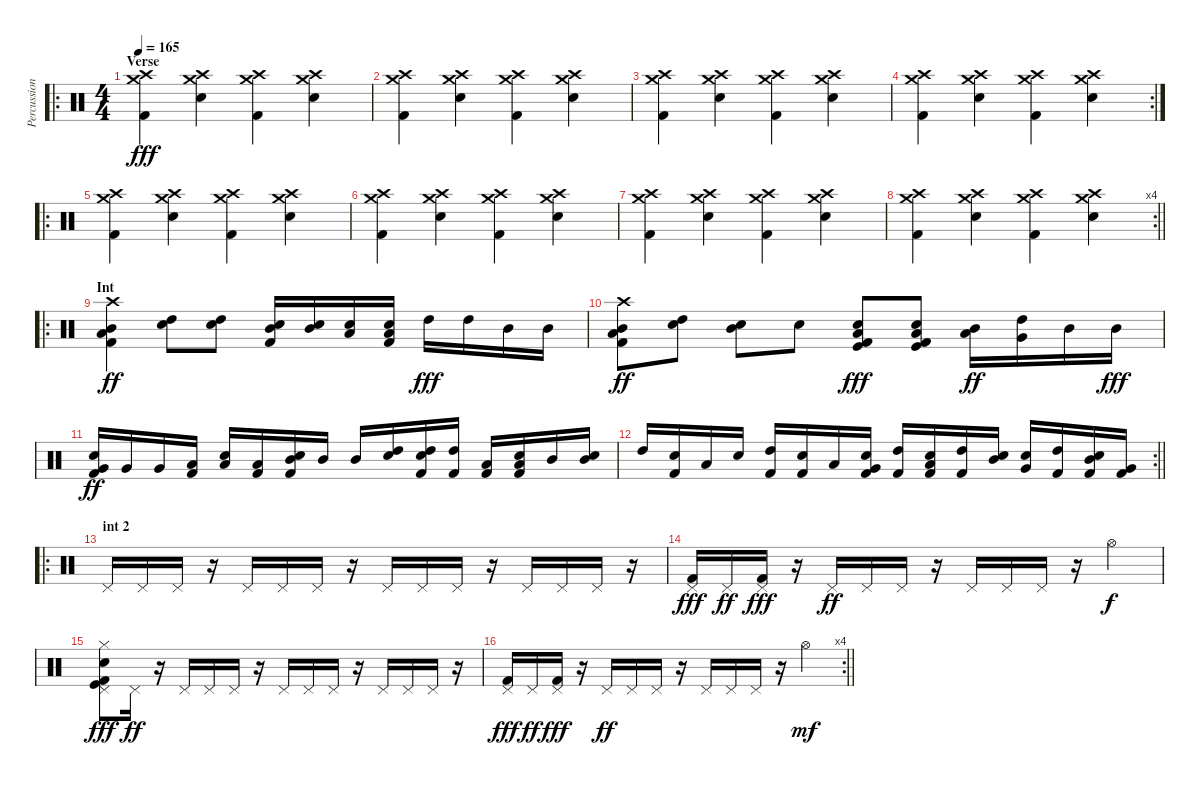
\track ("Percussion" "Percussion") {instrument percussion}
\staff {score}
\articulation defaults
\ro
\ts (4 4)
\section ("" "Verse")
\tempo 165
\clef neutral
\ks c
("Crash high (hit)" "Crash medium (hit)" "Kick (hit) 2").4{dy fff} ("Crash high (hit)" "Crash medium (hit)" "Snare (hit) 2").4 ("Crash high (hit)" "Crash medium (hit)" "Kick (hit) 2").4 ("Crash high (hit)" "Crash medium (hit)" "Snare (hit) 2").4 |
("Crash high (hit)" "Crash medium (hit)" "Kick (hit) 2").4 ("Crash high (hit)" "Crash medium (hit)" "Snare (hit) 2").4 ("Crash high (hit)" "Crash medium (hit)" "Kick (hit) 2").4 ("Crash high (hit)" "Crash medium (hit)" "Snare (hit) 2").4 |
("Crash high (hit)" "Crash medium (hit)" "Kick (hit) 2").4 ("Crash high (hit)" "Crash medium (hit)" "Snare (hit) 2").4 ("Crash high (hit)" "Crash medium (hit)" "Kick (hit) 2").4 ("Crash high (hit)" "Crash medium (hit)" "Snare (hit) 2").4 |
\rc 2
("Crash high (hit)" "Crash medium (hit)" "Kick (hit) 2").4 ("Crash high (hit)" "Crash medium (hit)" "Snare (hit) 2").4 ("Crash high (hit)" "Crash medium (hit)" "Kick (hit) 2").4 ("Crash high (hit)" "Crash medium (hit)" "Snare (hit) 2").4 |
\ro
("Crash high (hit)" "Crash medium (hit)" "Kick (hit) 2").4 ("Crash high (hit)" "Crash medium (hit)" "Snare (hit) 2").4 ("Crash high (hit)" "Crash medium (hit)" "Kick (hit) 2").4 ("Crash high (hit)" "Crash medium (hit)" "Snare (hit) 2").4 |
("Crash high (hit)" "Crash medium (hit)" "Kick (hit) 2").4 ("Crash high (hit)" "Crash medium (hit)" "Snare (hit) 2").4 ("Crash high (hit)" "Crash medium (hit)" "Kick (hit) 2").4 ("Crash high (hit)" "Crash medium (hit)" "Snare (hit) 2").4 |
("Crash high (hit)" "Crash medium (hit)" "Kick (hit) 2").4 ("Crash high (hit)" "Crash medium (hit)" "Snare (hit) 2").4 ("Crash high (hit)" "Crash medium (hit)" "Kick (hit) 2").4 ("Crash high (hit)" "Crash medium (hit)" "Snare (hit) 2").4 |
\rc 4
\barLineRight lightlight
("Crash high (hit)" "Crash medium (hit)" "Kick (hit) 2").4 ("Crash high (hit)" "Crash medium (hit)" "Snare (hit) 2").4 ("Crash high (hit)" "Crash medium (hit)" "Kick (hit) 2").4 ("Crash high (hit)" "Crash medium (hit)" "Snare (hit) 2").4 |
\ro
\section ("" "Int")
("Crash high (hit)" "Low Tom (hit)" "Mid Tom (hit)" "Kick (hit) 2").4{dy ff} ("High Tom (hit)" "Snare (hit) 2").8 ("High Tom (hit)" "Snare (hit) 2").8 ("Mid Tom (hit)" "Snare (hit) 2" "Kick (hit) 2").16 ("Mid Tom (hit)" "Snare (hit) 2").16 ("Low Tom (hit)" "Snare (hit) 2").16 ("Low Tom (hit)" "Snare (hit) 2" "Kick (hit) 2").16 "High Tom (hit)".16{dy fff} "High Tom (hit)".16 "Mid Tom (hit)".16 "Mid Tom (hit)".16 |
("Crash high (hit)" "Low Tom (hit)" "Mid Tom (hit)" "Kick (hit) 2").8{dy ff} ("High Tom (hit)" "Snare (hit) 2").8 ("Mid Tom (hit)" "Snare (hit) 2").8 "Snare (hit) 2".8 ("Low Tom (hit)" "Snare (hit) 2" "Kick (hit)" "Kick (hit) 2").8{dy fff} ("Low Tom (hit)" "Snare (hit) 2" "Kick (hit)" "Kick (hit) 2").8 ("Low Tom (hit)" "Mid Tom (hit)").16{dy ff} ("Very Low Tom (hit)" "High Tom (hit)").16 "Mid Tom (hit)".16 "Mid Tom (hit)".16{dy fff} |
("Very Low Tom (hit)" "Snare (hit) 2" "Kick (hit) 2").16{dy ff} "Very Low Tom (hit)".16 "Very Low Tom (hit)".16 ("Low Tom (hit)" "Kick (hit) 2").16 ("Low Tom (hit)" "Snare (hit) 2").16 ("Low Tom (hit)" "Kick (hit) 2").16 ("Mid Tom (hit)" "Snare (hit) 2" "Kick (hit) 2").16 "Mid Tom (hit)".16 "Mid Tom (hit)".16 ("High Tom (hit)" "Snare (hit) 2").16 ("High Tom (hit)" "Snare (hit) 2" "Kick (hit) 2").16 ("High Tom (hit)" "Kick (hit) 2").16 ("Low Tom (hit)" "Kick (hit) 2").16 ("Low Tom (hit)" "Snare (hit) 2" "Kick (hit) 2").16 "Mid Tom (hit)".16 ("Mid Tom (hit)" "Snare (hit) 2").16 |
\rc 2
\barLineRight lightlight "High Tom (hit)".16
("Snare (hit) 2" "Kick (hit) 2").16 "Low Tom (hit)".16 "Snare (hit) 2".16 ("High Tom (hit)" "Kick (hit) 2").16 ("Snare (hit) 2" "Kick (hit) 2").16 "Low Tom (hit)".16 ("Snare (hit) 2" "Very Low Tom (hit)" "Kick (hit) 2").16 ("High Tom (hit)" "Kick (hit) 2").16 ("Snare (hit) 2" "Low Tom (hit)" "Kick (hit) 2").16 ("High Tom (hit)" "Kick (hit) 2").16 ("Snare (hit) 2" "Mid Tom (hit)").16 ("Snare (hit) 2" "Very Low Tom (hit)").16 ("High Tom (hit)" "Kick (hit) 2").16 ("Snare (hit) 2" "Mid Tom (hit)" "Kick (hit) 2").16 ("Very Low Tom (hit)" "Kick (hit) 2").16 |
\ro
\section ("" "int 2")
"Pedal Hi-Hat (hit)".16 "Pedal Hi-Hat (hit)".16 "Pedal Hi-Hat (hit)".16 r.16 "Pedal Hi-Hat (hit)".16 "Pedal Hi-Hat (hit)".16 "Pedal Hi-Hat (hit)".16 r.16 "Pedal Hi-Hat (hit)".16 "Pedal Hi-Hat (hit)".16 "Pedal Hi-Hat (hit)".16 r.16 "Pedal Hi-Hat (hit)".16 "Pedal Hi-Hat (hit)".16 "Pedal Hi-Hat (hit)".16 r.16 |
("Pedal Hi-Hat (hit)" "Kick (hit) 2").16{dy fff} "Pedal Hi-Hat (hit)".16{dy ff} ("Pedal Hi-Hat (hit)" "Kick (hit) 2").16{dy fff} r.16 "Pedal Hi-Hat (hit)".16{dy ff} "Pedal Hi-Hat (hit)".16 "Pedal Hi-Hat (hit)".16 r.16 "Pedal Hi-Hat (hit)".16 "Pedal Hi-Hat (hit)".16 "Pedal Hi-Hat (hit)".16 r.16 "Hi-Hat (open)".4{dy f} |
("Hi-Hat (closed)" "Pedal Hi-Hat (hit)" "Snare (hit) 2" "Kick (hit)" "Kick (hit) 2").8{dy fff} "Pedal Hi-Hat (hit)".16{dy ff} r.16 "Pedal Hi-Hat (hit)".16 "Pedal Hi-Hat (hit)".16 "Pedal Hi-Hat (hit)".16 r.16 "Pedal Hi-Hat (hit)".16 "Pedal Hi-Hat (hit)".16 "Pedal Hi-Hat (hit)".16 r.16 "Pedal Hi-Hat (hit)".16 "Pedal Hi-Hat (hit)".16 "Pedal Hi-Hat (hit)".16 r.16 |
\rc 4
\barLineRight lightlight
("Pedal Hi-Hat (hit)" "Kick (hit) 2").16{dy fff} "Pedal Hi-Hat (hit)".16{dy ff} ("Pedal Hi-Hat (hit)" "Kick (hit) 2").16{dy fff} r.16 "Pedal Hi-Hat (hit)".16{dy ff} "Pedal Hi-Hat (hit)".16 "Pedal Hi-Hat (hit)".16 r.16 "Pedal Hi-Hat (hit)".16 "Pedal Hi-Hat (hit)".16 "Pedal Hi-Hat (hit)".16 r.16 "Hi-Hat (open)".4{dy mf}
